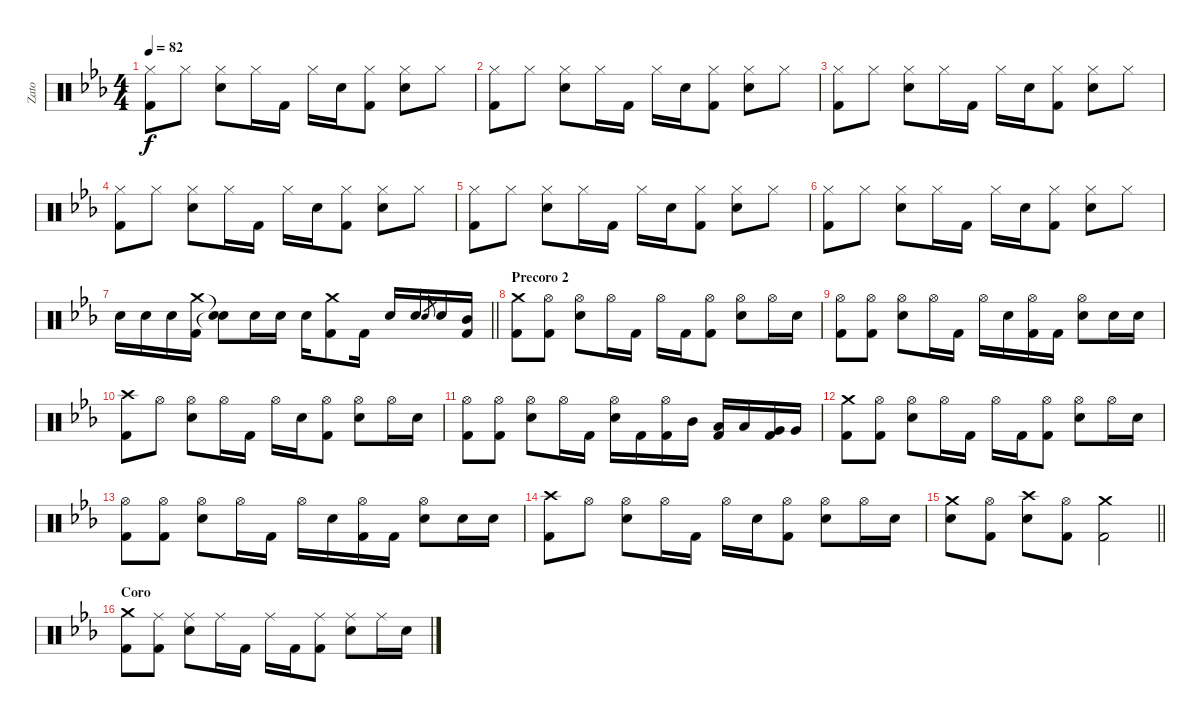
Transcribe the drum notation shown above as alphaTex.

\track ("Zato" "Zato") {instrument percussion}
\staff {score}
\articulation defaults
\ts (4 4)
\tempo 82
\clef neutral
\ks cminor
("Hi-Hat (closed)" "Kick (hit) 2").8{dy f} "Hi-Hat (closed)".8 ("Hi-Hat (closed)" "Electric Snare (hit)").8 "Hi-Hat (closed)".16 "Kick (hit) 2".16 "Hi-Hat (closed)".16 "Electric Snare (hit)".16 ("Hi-Hat (closed)" "Kick (hit) 2").8 ("Hi-Hat (closed)" "Electric Snare (hit)").8 "Hi-Hat (closed)".8 |
("Hi-Hat (closed)" "Kick (hit) 2").8 "Hi-Hat (closed)".8 ("Hi-Hat (closed)" "Electric Snare (hit)").8 "Hi-Hat (closed)".16 "Kick (hit) 2".16 "Hi-Hat (closed)".16 "Electric Snare (hit)".16 ("Hi-Hat (closed)" "Kick (hit) 2").8 ("Hi-Hat (closed)" "Electric Snare (hit)").8 "Hi-Hat (closed)".8 |
("Hi-Hat (closed)" "Kick (hit) 2").8 "Hi-Hat (closed)".8 ("Hi-Hat (closed)" "Electric Snare (hit)").8 "Hi-Hat (closed)".16 "Kick (hit) 2".16 "Hi-Hat (closed)".16 "Electric Snare (hit)".16 ("Hi-Hat (closed)" "Kick (hit) 2").8 ("Hi-Hat (closed)" "Electric Snare (hit)").8 "Hi-Hat (closed)".8 |
("Hi-Hat (closed)" "Kick (hit) 2").8 "Hi-Hat (closed)".8 ("Hi-Hat (closed)" "Electric Snare (hit)").8 "Hi-Hat (closed)".16 "Kick (hit) 2".16 "Hi-Hat (closed)".16 "Electric Snare (hit)".16 ("Hi-Hat (closed)" "Kick (hit) 2").8 ("Hi-Hat (closed)" "Electric Snare (hit)").8 "Hi-Hat (closed)".8 |
("Hi-Hat (closed)" "Kick (hit) 2").8 "Hi-Hat (closed)".8 ("Hi-Hat (closed)" "Electric Snare (hit)").8 "Hi-Hat (closed)".16 "Kick (hit) 2".16 "Hi-Hat (closed)".16 "Electric Snare (hit)".16 ("Hi-Hat (closed)" "Kick (hit) 2").8 ("Hi-Hat (closed)" "Electric Snare (hit)").8 "Hi-Hat (closed)".8 |
("Hi-Hat (closed)" "Kick (hit) 2").8 "Hi-Hat (closed)".8 ("Hi-Hat (closed)" "Electric Snare (hit)").8 "Hi-Hat (closed)".16 "Kick (hit) 2".16 "Hi-Hat (closed)".16 "Electric Snare (hit)".16 ("Hi-Hat (closed)" "Kick (hit) 2").8 ("Hi-Hat (closed)" "Electric Snare (hit)").8 "Hi-Hat (closed)".8 |
\barLineRight lightlight "Electric Snare (hit)".16 "Electric Snare (hit)".16 "Electric Snare (hit)".16
("Crash medium (hit)" "Kick (hit) 2").16 ("Snare (hit)"{t} "Snare (hit)"{t}).8 "Electric Snare (hit)".16 "Electric Snare (hit)".16 "Electric Snare (hit)".16 ("Crash medium (hit)" "Kick (hit) 2").8 "Kick (hit) 2".16 "Electric Snare (hit)".16 "Electric Snare (hit)".16 "Electric Snare (hit)".8{gr} "Electric Snare (hit)".16 ("Mid Tom (hit)" "Kick (hit) 2").16 |
\section ("" "Precoro 2")
("Crash medium (hit)" "Kick (hit) 2").8 ("Hi-Hat (open)" "Kick (hit) 2").8 ("Hi-Hat (open)" "Electric Snare (hit)").8 "Hi-Hat (open)".16 "Kick (hit) 2".16 "Hi-Hat (open)".16 "Kick (hit) 2".16 ("Hi-Hat (open)" "Kick (hit) 2").8 ("Hi-Hat (open)" "Electric Snare (hit)").8 "Hi-Hat (open)".16 "Electric Snare (hit)".16 |
("Hi-Hat (open)" "Kick (hit) 2").8 ("Hi-Hat (open)" "Kick (hit) 2").8 ("Hi-Hat (open)" "Electric Snare (hit)").8 "Hi-Hat (open)".16 "Kick (hit) 2".16 "Hi-Hat (open)".16 "Electric Snare (hit)".16 ("Hi-Hat (open)" "Kick (hit) 2").16 "Kick (hit) 2".16 ("Hi-Hat (open)" "Electric Snare (hit)").8 "Electric Snare (hit)".16 "Electric Snare (hit)".16 |
("Crash high (hit)" "Kick (hit) 2").8 "Hi-Hat (open)".8 ("Hi-Hat (open)" "Electric Snare (hit)").8 "Hi-Hat (open)".16 "Kick (hit) 2".16 "Hi-Hat (open)".16 "Electric Snare (hit)".16 ("Hi-Hat (open)" "Kick (hit) 2").8 ("Hi-Hat (open)" "Electric Snare (hit)").8 "Hi-Hat (open)".16 "Electric Snare (hit)".16 |
("Hi-Hat (open)" "Kick (hit) 2").8 ("Hi-Hat (open)" "Kick (hit) 2").8 ("Hi-Hat (open)" "Electric Snare (hit)").8 "Hi-Hat (open)".16 "Kick (hit) 2".16 ("Hi-Hat (open)" "Electric Snare (hit)").16 "Kick (hit) 2".16 ("Hi-Hat (open)" "Kick (hit) 2").16 "Mid Tom (hit)".16 ("Low Tom (hit)" "Kick (hit) 2").16 "Low Tom (hit)".16 ("Very Low Tom (hit)" "Kick (hit) 2").16 "Very Low Tom (hit)".16 |
("Crash medium (hit)" "Kick (hit) 2").8 ("Hi-Hat (open)" "Kick (hit) 2").8 ("Hi-Hat (open)" "Electric Snare (hit)").8 "Hi-Hat (open)".16 "Kick (hit) 2".16 "Hi-Hat (open)".16 "Kick (hit) 2".16 ("Hi-Hat (open)" "Kick (hit) 2").8 ("Hi-Hat (open)" "Electric Snare (hit)").8 "Hi-Hat (open)".16 "Electric Snare (hit)".16 |
("Hi-Hat (open)" "Kick (hit) 2").8 ("Hi-Hat (open)" "Kick (hit) 2").8 ("Hi-Hat (open)" "Electric Snare (hit)").8 "Hi-Hat (open)".16 "Kick (hit) 2".16 "Hi-Hat (open)".16 "Electric Snare (hit)".16 ("Hi-Hat (open)" "Kick (hit) 2").16 "Kick (hit) 2".16 ("Hi-Hat (open)" "Electric Snare (hit)").8 "Electric Snare (hit)".16 "Electric Snare (hit)".16 |
("Crash high (hit)" "Kick (hit) 2").8 "Hi-Hat (open)".8 ("Hi-Hat (open)" "Electric Snare (hit)").8 "Hi-Hat (open)".16 "Kick (hit) 2".16 "Hi-Hat (open)".16 "Electric Snare (hit)".16 ("Hi-Hat (open)" "Kick (hit) 2").8 ("Hi-Hat (open)" "Electric Snare (hit)").8 "Hi-Hat (open)".16 "Electric Snare (hit)".16 |
\barLineRight lightlight
("Crash medium (hit)" "Electric Snare (hit)").8 ("Hi-Hat (open)" "Kick (hit) 2").8 ("Crash high (hit)" "Electric Snare (hit)").8 ("Hi-Hat (open)" "Kick (hit) 2").8 ("Crash medium (hit)" "Kick (hit) 2").2 |
\section ("" "Coro")
("Crash medium (hit)" "Kick (hit) 2").8 ("Ride (middle)" "Kick (hit) 2").8 ("Ride (middle)" "Electric Snare (hit)").8 "Ride (middle)".16 "Kick (hit) 2".16 "Ride (middle)".16 "Kick (hit) 2".16 ("Ride (middle)" "Kick (hit) 2").8 ("Ride (middle)" "Electric Snare (hit)").8 "Ride (middle)".16 "Electric Snare (hit)".16
